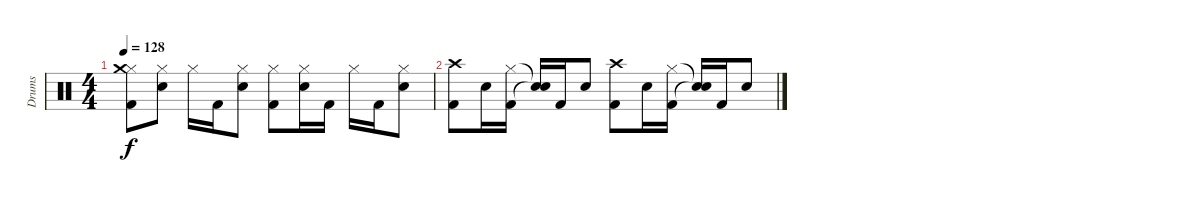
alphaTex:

\track ("Drums" "Drums") {instrument percussion}
\staff {score}
\articulation defaults
\ts (4 4)
\tempo 128
\clef neutral
\ks c
("Kick (hit) 2" "Hi-Hat (closed)" "Crash medium (hit)").8{dy f} ("Snare (hit) 2" "Hi-Hat (closed)").8 "Hi-Hat (closed)".16 "Kick (hit) 2".16 ("Snare (hit) 2" "Hi-Hat (closed)").8 ("Kick (hit) 2" "Hi-Hat (closed)").8 ("Snare (hit) 2" "Hi-Hat (closed)").16 "Kick (hit) 2".16 "Hi-Hat (closed)".16 "Kick (hit) 2".16 ("Snare (hit) 2" "Hi-Hat (closed)").8 |
("Kick (hit) 2" "Crash high (hit)").8 "Snare (hit) 2".16 ("Kick (hit) 2" "Hi-Hat (closed)").16 ("Snare (hit)"{t} "Snare (hit)"{t}).16 "Kick (hit) 2".16 "Snare (hit) 2".8 ("Kick (hit) 2" "Crash high (hit)").8 "Snare (hit) 2".16 ("Kick (hit) 2" "Hi-Hat (closed)").16 ("Snare (hit)"{t} "Snare (hit)"{t}).16 "Kick (hit) 2".16 "Snare (hit) 2".8
